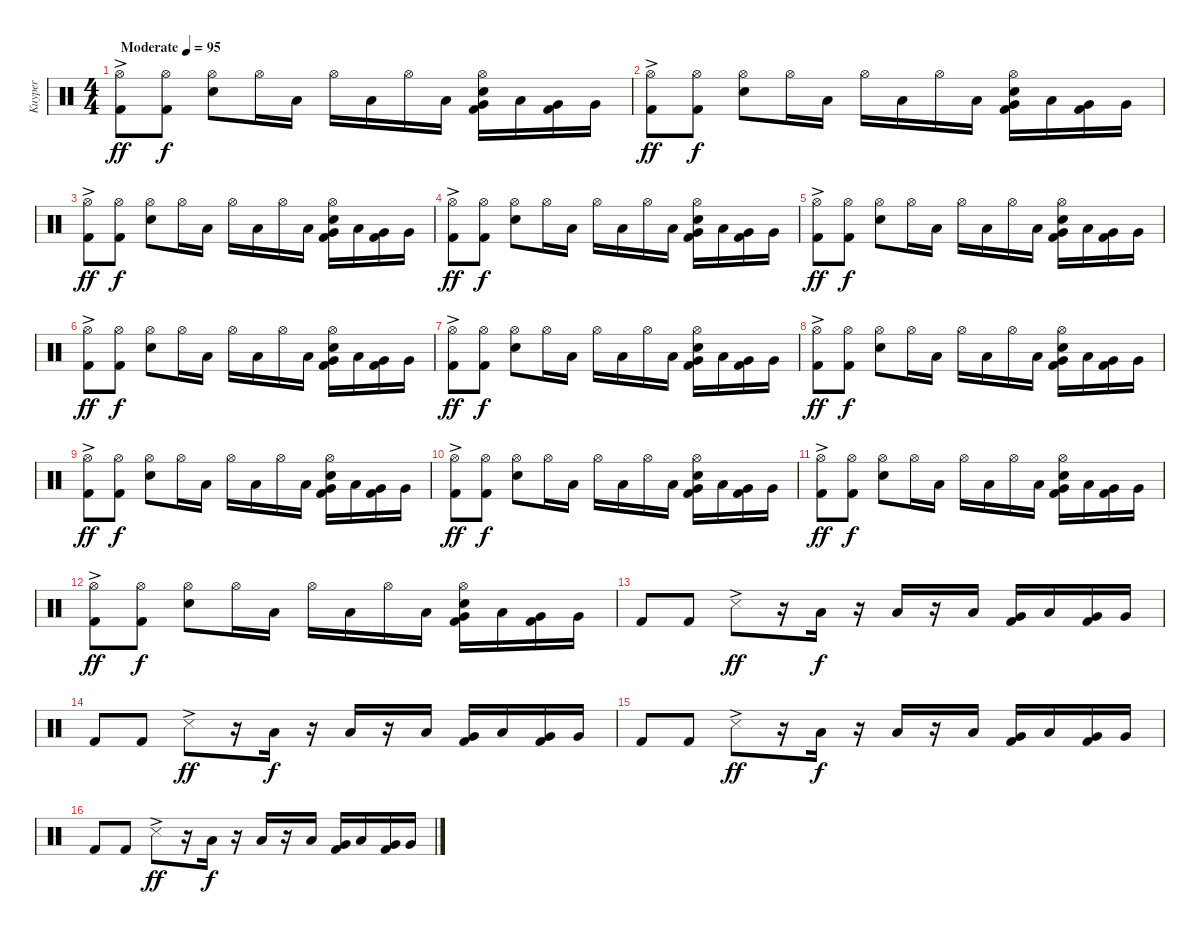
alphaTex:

\track ("Kuyper" "Kuyper") {instrument percussion}
\staff {score}
\articulation defaults
\ts (4 4)
\tempo (95 "Moderate")
\clef neutral
\ks c
("Hi-Hat (open)"{ac} "Kick (hit) 2").8{dy ff} ("Hi-Hat (open)" "Kick (hit) 2").8{dy f} ("Hi-Hat (open)" "Snare (hit) 2").8 "Hi-Hat (open)".16 "Low Floor Tom (hit)".16 "Hi-Hat (open)".16 "Low Floor Tom (hit)".16 "Hi-Hat (open)".16 "Low Floor Tom (hit)".16 ("Hi-Hat (open)" "Very Low Tom (hit)" "Snare (hit) 2" "Kick (hit) 2").16 "Low Floor Tom (hit)".16 ("Very Low Tom (hit)" "Kick (hit) 2").16 "Very Low Tom (hit)".16 |
("Hi-Hat (open)"{ac} "Kick (hit) 2").8{dy ff} ("Hi-Hat (open)" "Kick (hit) 2").8{dy f} ("Hi-Hat (open)" "Snare (hit) 2").8 "Hi-Hat (open)".16 "Low Floor Tom (hit)".16 "Hi-Hat (open)".16 "Low Floor Tom (hit)".16 "Hi-Hat (open)".16 "Low Floor Tom (hit)".16 ("Hi-Hat (open)" "Very Low Tom (hit)" "Snare (hit) 2" "Kick (hit) 2").16 "Low Floor Tom (hit)".16 ("Very Low Tom (hit)" "Kick (hit) 2").16 "Very Low Tom (hit)".16 |
("Hi-Hat (open)"{ac} "Kick (hit) 2").8{dy ff} ("Hi-Hat (open)" "Kick (hit) 2").8{dy f} ("Hi-Hat (open)" "Snare (hit) 2").8 "Hi-Hat (open)".16 "Low Floor Tom (hit)".16 "Hi-Hat (open)".16 "Low Floor Tom (hit)".16 "Hi-Hat (open)".16 "Low Floor Tom (hit)".16 ("Hi-Hat (open)" "Very Low Tom (hit)" "Snare (hit) 2" "Kick (hit) 2").16 "Low Floor Tom (hit)".16 ("Very Low Tom (hit)" "Kick (hit) 2").16 "Very Low Tom (hit)".16 |
("Hi-Hat (open)"{ac} "Kick (hit) 2").8{dy ff} ("Hi-Hat (open)" "Kick (hit) 2").8{dy f} ("Hi-Hat (open)" "Snare (hit) 2").8 "Hi-Hat (open)".16 "Low Floor Tom (hit)".16 "Hi-Hat (open)".16 "Low Floor Tom (hit)".16 "Hi-Hat (open)".16 "Low Floor Tom (hit)".16 ("Hi-Hat (open)" "Very Low Tom (hit)" "Snare (hit) 2" "Kick (hit) 2").16 "Low Floor Tom (hit)".16 ("Very Low Tom (hit)" "Kick (hit) 2").16 "Very Low Tom (hit)".16 |
("Hi-Hat (open)"{ac} "Kick (hit) 2").8{dy ff} ("Hi-Hat (open)" "Kick (hit) 2").8{dy f} ("Hi-Hat (open)" "Snare (hit) 2").8 "Hi-Hat (open)".16 "Low Floor Tom (hit)".16 "Hi-Hat (open)".16 "Low Floor Tom (hit)".16 "Hi-Hat (open)".16 "Low Floor Tom (hit)".16 ("Hi-Hat (open)" "Very Low Tom (hit)" "Snare (hit) 2" "Kick (hit) 2").16 "Low Floor Tom (hit)".16 ("Very Low Tom (hit)" "Kick (hit) 2").16 "Very Low Tom (hit)".16 |
("Hi-Hat (open)"{ac} "Kick (hit) 2").8{dy ff} ("Hi-Hat (open)" "Kick (hit) 2").8{dy f} ("Hi-Hat (open)" "Snare (hit) 2").8 "Hi-Hat (open)".16 "Low Floor Tom (hit)".16 "Hi-Hat (open)".16 "Low Floor Tom (hit)".16 "Hi-Hat (open)".16 "Low Floor Tom (hit)".16 ("Hi-Hat (open)" "Very Low Tom (hit)" "Snare (hit) 2" "Kick (hit) 2").16 "Low Floor Tom (hit)".16 ("Very Low Tom (hit)" "Kick (hit) 2").16 "Very Low Tom (hit)".16 |
("Hi-Hat (open)"{ac} "Kick (hit) 2").8{dy ff} ("Hi-Hat (open)" "Kick (hit) 2").8{dy f} ("Hi-Hat (open)" "Snare (hit) 2").8 "Hi-Hat (open)".16 "Low Floor Tom (hit)".16 "Hi-Hat (open)".16 "Low Floor Tom (hit)".16 "Hi-Hat (open)".16 "Low Floor Tom (hit)".16 ("Hi-Hat (open)" "Very Low Tom (hit)" "Snare (hit) 2" "Kick (hit) 2").16 "Low Floor Tom (hit)".16 ("Very Low Tom (hit)" "Kick (hit) 2").16 "Very Low Tom (hit)".16 |
("Hi-Hat (open)"{ac} "Kick (hit) 2").8{dy ff} ("Hi-Hat (open)" "Kick (hit) 2").8{dy f} ("Hi-Hat (open)" "Snare (hit) 2").8 "Hi-Hat (open)".16 "Low Floor Tom (hit)".16 "Hi-Hat (open)".16 "Low Floor Tom (hit)".16 "Hi-Hat (open)".16 "Low Floor Tom (hit)".16 ("Hi-Hat (open)" "Very Low Tom (hit)" "Snare (hit) 2" "Kick (hit) 2").16 "Low Floor Tom (hit)".16 ("Very Low Tom (hit)" "Kick (hit) 2").16 "Very Low Tom (hit)".16 |
("Hi-Hat (open)"{ac} "Kick (hit) 2").8{dy ff} ("Hi-Hat (open)" "Kick (hit) 2").8{dy f} ("Hi-Hat (open)" "Snare (hit) 2").8 "Hi-Hat (open)".16 "Low Floor Tom (hit)".16 "Hi-Hat (open)".16 "Low Floor Tom (hit)".16 "Hi-Hat (open)".16 "Low Floor Tom (hit)".16 ("Hi-Hat (open)" "Very Low Tom (hit)" "Snare (hit) 2" "Kick (hit) 2").16 "Low Floor Tom (hit)".16 ("Very Low Tom (hit)" "Kick (hit) 2").16 "Very Low Tom (hit)".16 |
("Hi-Hat (open)"{ac} "Kick (hit) 2").8{dy ff} ("Hi-Hat (open)" "Kick (hit) 2").8{dy f} ("Hi-Hat (open)" "Snare (hit) 2").8 "Hi-Hat (open)".16 "Low Floor Tom (hit)".16 "Hi-Hat (open)".16 "Low Floor Tom (hit)".16 "Hi-Hat (open)".16 "Low Floor Tom (hit)".16 ("Hi-Hat (open)" "Very Low Tom (hit)" "Snare (hit) 2" "Kick (hit) 2").16 "Low Floor Tom (hit)".16 ("Very Low Tom (hit)" "Kick (hit) 2").16 "Very Low Tom (hit)".16 |
("Hi-Hat (open)"{ac} "Kick (hit) 2").8{dy ff} ("Hi-Hat (open)" "Kick (hit) 2").8{dy f} ("Hi-Hat (open)" "Snare (hit) 2").8 "Hi-Hat (open)".16 "Low Floor Tom (hit)".16 "Hi-Hat (open)".16 "Low Floor Tom (hit)".16 "Hi-Hat (open)".16 "Low Floor Tom (hit)".16 ("Hi-Hat (open)" "Very Low Tom (hit)" "Snare (hit) 2" "Kick (hit) 2").16 "Low Floor Tom (hit)".16 ("Very Low Tom (hit)" "Kick (hit) 2").16 "Very Low Tom (hit)".16 |
("Hi-Hat (open)"{ac} "Kick (hit) 2").8{dy ff} ("Hi-Hat (open)" "Kick (hit) 2").8{dy f} ("Hi-Hat (open)" "Snare (hit) 2").8 "Hi-Hat (open)".16 "Low Floor Tom (hit)".16 "Hi-Hat (open)".16 "Low Floor Tom (hit)".16 "Hi-Hat (open)".16 "Low Floor Tom (hit)".16 ("Hi-Hat (open)" "Very Low Tom (hit)" "Snare (hit) 2" "Kick (hit) 2").16 "Low Floor Tom (hit)".16 ("Very Low Tom (hit)" "Kick (hit) 2").16 "Very Low Tom (hit)".16 |
"Kick (hit) 2".8 "Kick (hit) 2".8 "Snare (side stick) 3"{ac}.8{dy ff} r.16 "Low Floor Tom (hit)".16{dy f} r.16 "Low Floor Tom (hit)".16 r.16 "Low Floor Tom (hit)".16 ("Very Low Tom (hit)" "Kick (hit) 2").16 "Low Floor Tom (hit)".16 ("Very Low Tom (hit)" "Kick (hit) 2").16 "Very Low Tom (hit)".16 |
"Kick (hit) 2".8 "Kick (hit) 2".8 "Snare (side stick) 3"{ac}.8{dy ff} r.16 "Low Floor Tom (hit)".16{dy f} r.16 "Low Floor Tom (hit)".16 r.16 "Low Floor Tom (hit)".16 ("Very Low Tom (hit)" "Kick (hit) 2").16 "Low Floor Tom (hit)".16 ("Very Low Tom (hit)" "Kick (hit) 2").16 "Very Low Tom (hit)".16 |
"Kick (hit) 2".8 "Kick (hit) 2".8 "Snare (side stick) 3"{ac}.8{dy ff} r.16 "Low Floor Tom (hit)".16{dy f} r.16 "Low Floor Tom (hit)".16 r.16 "Low Floor Tom (hit)".16 ("Very Low Tom (hit)" "Kick (hit) 2").16 "Low Floor Tom (hit)".16 ("Very Low Tom (hit)" "Kick (hit) 2").16 "Very Low Tom (hit)".16 |
"Kick (hit) 2".8 "Kick (hit) 2".8 "Snare (side stick) 3"{ac}.8{dy ff} r.16 "Low Floor Tom (hit)".16{dy f} r.16 "Low Floor Tom (hit)".16 r.16 "Low Floor Tom (hit)".16 ("Very Low Tom (hit)" "Kick (hit) 2").16 "Low Floor Tom (hit)".16 ("Very Low Tom (hit)" "Kick (hit) 2").16 "Very Low Tom (hit)".16
